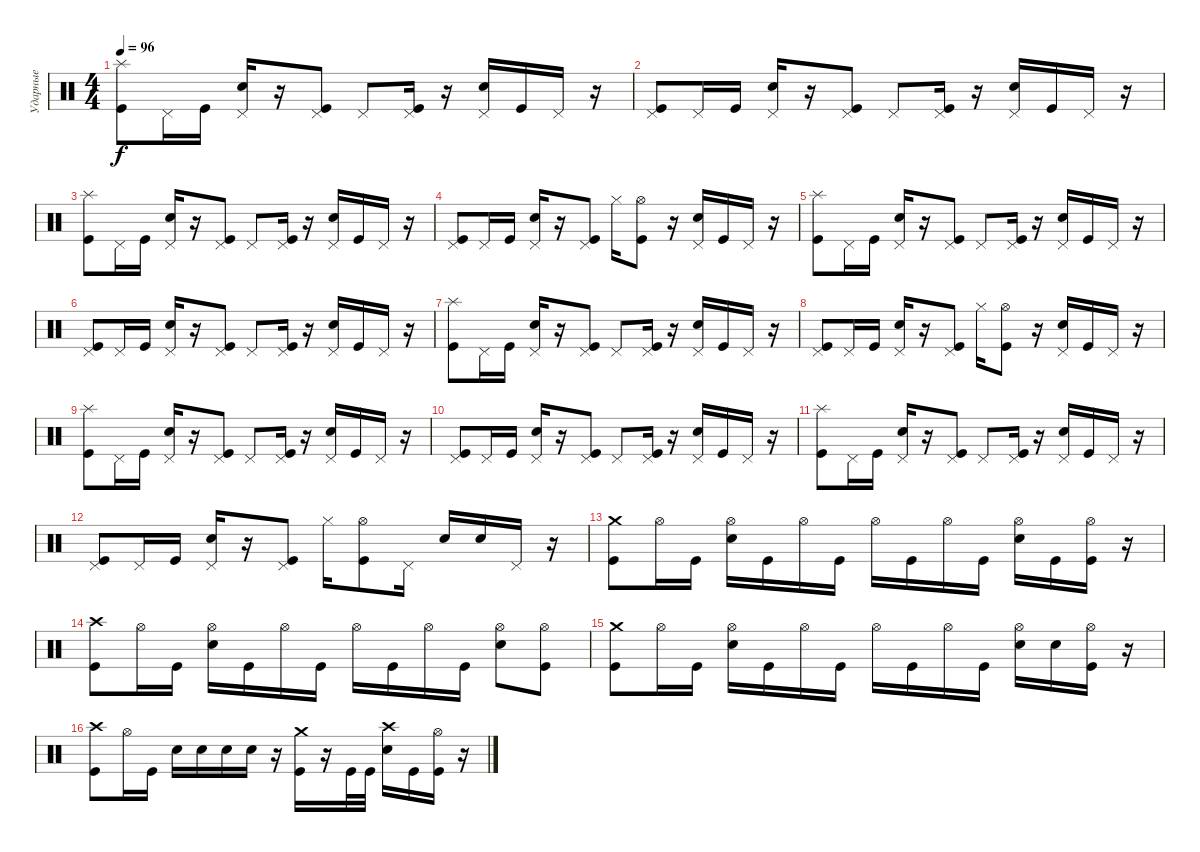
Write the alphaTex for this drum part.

\track ("Ударные" "Ударные") {instrument percussion}
\staff {score}
\articulation defaults
\ts (4 4)
\tempo 96
\clef neutral
\ks c
("Splash (hit)" "Kick (hit)").8{dy f} "Pedal Hi-Hat (hit)".16 "Kick (hit)".16 ("Pedal Hi-Hat (hit)" "Electric Snare (hit)").16 r.16 ("Pedal Hi-Hat (hit)" "Kick (hit)").8 "Pedal Hi-Hat (hit)".8 ("Pedal Hi-Hat (hit)" "Kick (hit)").16 r.16 ("Pedal Hi-Hat (hit)" "Electric Snare (hit)").16 "Kick (hit)".16 "Pedal Hi-Hat (hit)".16 r.16 |
("Pedal Hi-Hat (hit)" "Kick (hit)").8 "Pedal Hi-Hat (hit)".16 "Kick (hit)".16 ("Pedal Hi-Hat (hit)" "Electric Snare (hit)").16 r.16 ("Pedal Hi-Hat (hit)" "Kick (hit)").8 "Pedal Hi-Hat (hit)".8 ("Pedal Hi-Hat (hit)" "Kick (hit)").16 r.16 ("Pedal Hi-Hat (hit)" "Electric Snare (hit)").16 "Kick (hit)".16 "Pedal Hi-Hat (hit)".16 r.16 |
("Splash (hit)" "Kick (hit)").8 "Pedal Hi-Hat (hit)".16 "Kick (hit)".16 ("Pedal Hi-Hat (hit)" "Electric Snare (hit)").16 r.16 ("Pedal Hi-Hat (hit)" "Kick (hit)").8 "Pedal Hi-Hat (hit)".8 ("Pedal Hi-Hat (hit)" "Kick (hit)").16 r.16 ("Pedal Hi-Hat (hit)" "Electric Snare (hit)").16 "Kick (hit)".16 "Pedal Hi-Hat (hit)".16 r.16 |
("Pedal Hi-Hat (hit)" "Kick (hit)").8 "Pedal Hi-Hat (hit)".16 "Kick (hit)".16 ("Pedal Hi-Hat (hit)" "Electric Snare (hit)").16 r.16 ("Pedal Hi-Hat (hit)" "Kick (hit)").8 "Hi-Hat (closed)".16 ("Hi-Hat (open)" "Kick (hit)").8 r.16 ("Pedal Hi-Hat (hit)" "Electric Snare (hit)").16 "Kick (hit)".16 "Pedal Hi-Hat (hit)".16 r.16 |
("Splash (hit)" "Kick (hit)").8 "Pedal Hi-Hat (hit)".16 "Kick (hit)".16 ("Pedal Hi-Hat (hit)" "Electric Snare (hit)").16 r.16 ("Pedal Hi-Hat (hit)" "Kick (hit)").8 "Pedal Hi-Hat (hit)".8 ("Pedal Hi-Hat (hit)" "Kick (hit)").16 r.16 ("Pedal Hi-Hat (hit)" "Electric Snare (hit)").16 "Kick (hit)".16 "Pedal Hi-Hat (hit)".16 r.16 |
("Pedal Hi-Hat (hit)" "Kick (hit)").8 "Pedal Hi-Hat (hit)".16 "Kick (hit)".16 ("Pedal Hi-Hat (hit)" "Electric Snare (hit)").16 r.16 ("Pedal Hi-Hat (hit)" "Kick (hit)").8 "Pedal Hi-Hat (hit)".8 ("Pedal Hi-Hat (hit)" "Kick (hit)").16 r.16 ("Pedal Hi-Hat (hit)" "Electric Snare (hit)").16 "Kick (hit)".16 "Pedal Hi-Hat (hit)".16 r.16 |
("Splash (hit)" "Kick (hit)").8 "Pedal Hi-Hat (hit)".16 "Kick (hit)".16 ("Pedal Hi-Hat (hit)" "Electric Snare (hit)").16 r.16 ("Pedal Hi-Hat (hit)" "Kick (hit)").8 "Pedal Hi-Hat (hit)".8 ("Pedal Hi-Hat (hit)" "Kick (hit)").16 r.16 ("Pedal Hi-Hat (hit)" "Electric Snare (hit)").16 "Kick (hit)".16 "Pedal Hi-Hat (hit)".16 r.16 |
("Pedal Hi-Hat (hit)" "Kick (hit)").8 "Pedal Hi-Hat (hit)".16 "Kick (hit)".16 ("Pedal Hi-Hat (hit)" "Electric Snare (hit)").16 r.16 ("Pedal Hi-Hat (hit)" "Kick (hit)").8 "Hi-Hat (closed)".16 ("Hi-Hat (open)" "Kick (hit)").8 r.16 ("Pedal Hi-Hat (hit)" "Electric Snare (hit)").16 "Kick (hit)".16 "Pedal Hi-Hat (hit)".16 r.16 |
("Splash (hit)" "Kick (hit)").8 "Pedal Hi-Hat (hit)".16 "Kick (hit)".16 ("Pedal Hi-Hat (hit)" "Electric Snare (hit)").16 r.16 ("Pedal Hi-Hat (hit)" "Kick (hit)").8 "Pedal Hi-Hat (hit)".8 ("Pedal Hi-Hat (hit)" "Kick (hit)").16 r.16 ("Pedal Hi-Hat (hit)" "Electric Snare (hit)").16 "Kick (hit)".16 "Pedal Hi-Hat (hit)".16 r.16 |
("Pedal Hi-Hat (hit)" "Kick (hit)").8 "Pedal Hi-Hat (hit)".16 "Kick (hit)".16 ("Pedal Hi-Hat (hit)" "Electric Snare (hit)").16 r.16 ("Pedal Hi-Hat (hit)" "Kick (hit)").8 "Pedal Hi-Hat (hit)".8 ("Pedal Hi-Hat (hit)" "Kick (hit)").16 r.16 ("Pedal Hi-Hat (hit)" "Electric Snare (hit)").16 "Kick (hit)".16 "Pedal Hi-Hat (hit)".16 r.16 |
("Splash (hit)" "Kick (hit)").8 "Pedal Hi-Hat (hit)".16 "Kick (hit)".16 ("Pedal Hi-Hat (hit)" "Electric Snare (hit)").16 r.16 ("Pedal Hi-Hat (hit)" "Kick (hit)").8 "Pedal Hi-Hat (hit)".8 ("Pedal Hi-Hat (hit)" "Kick (hit)").16 r.16 ("Pedal Hi-Hat (hit)" "Electric Snare (hit)").16 "Kick (hit)".16 "Pedal Hi-Hat (hit)".16 r.16 |
("Pedal Hi-Hat (hit)" "Kick (hit)").8 "Pedal Hi-Hat (hit)".16 "Kick (hit)".16 ("Pedal Hi-Hat (hit)" "Electric Snare (hit)").16 r.16 ("Pedal Hi-Hat (hit)" "Kick (hit)").8 "Hi-Hat (closed)".16 ("Hi-Hat (open)" "Kick (hit)").8 "Pedal Hi-Hat (hit)".16 "Electric Snare (hit)".16 "Electric Snare (hit)".16 "Pedal Hi-Hat (hit)".16 r.16 |
("Crash medium (hit)" "Kick (hit)").8 "Hi-Hat (open)".16 "Kick (hit)".16 ("Hi-Hat (open)" "Electric Snare (hit)").16 "Kick (hit)".16 "Hi-Hat (open)".16 "Kick (hit)".16 "Hi-Hat (open)".16 "Kick (hit)".16 "Hi-Hat (open)".16 "Kick (hit)".16 ("Hi-Hat (open)" "Electric Snare (hit)").16 "Kick (hit)".16 ("Hi-Hat (open)" "Kick (hit)").16 r.16 |
("Crash high (hit)" "Kick (hit)").8 "Hi-Hat (open)".16 "Kick (hit)".16 ("Hi-Hat (open)" "Electric Snare (hit)").16 "Kick (hit)".16 "Hi-Hat (open)".16 "Kick (hit)".16 "Hi-Hat (open)".16 "Kick (hit)".16 "Hi-Hat (open)".16 "Kick (hit)".16 ("Hi-Hat (open)" "Electric Snare (hit)").8 ("Hi-Hat (open)" "Kick (hit)").8 |
("Crash medium (hit)" "Kick (hit)").8 "Hi-Hat (open)".16 "Kick (hit)".16 ("Hi-Hat (open)" "Electric Snare (hit)").16 "Kick (hit)".16 "Hi-Hat (open)".16 "Kick (hit)".16 "Hi-Hat (open)".16 "Kick (hit)".16 "Hi-Hat (open)".16 "Kick (hit)".16 ("Hi-Hat (open)" "Electric Snare (hit)").16 "Electric Snare (hit)".16 ("Hi-Hat (open)" "Kick (hit)").16 r.16 |
("Crash high (hit)" "Kick (hit)").8 "Hi-Hat (open)".16 "Kick (hit)".16 "Electric Snare (hit)".16 "Electric Snare (hit)".16 "Electric Snare (hit)".16 "Electric Snare (hit)".16 r.16 ("Crash medium (hit)" "Kick (hit)").16 r.16 "Kick (hit)".32 "Kick (hit)".32 ("Crash high (hit)" "Electric Snare (hit)").16 "Kick (hit)".16 ("Hi-Hat (open)" "Kick (hit)").16 r.16
